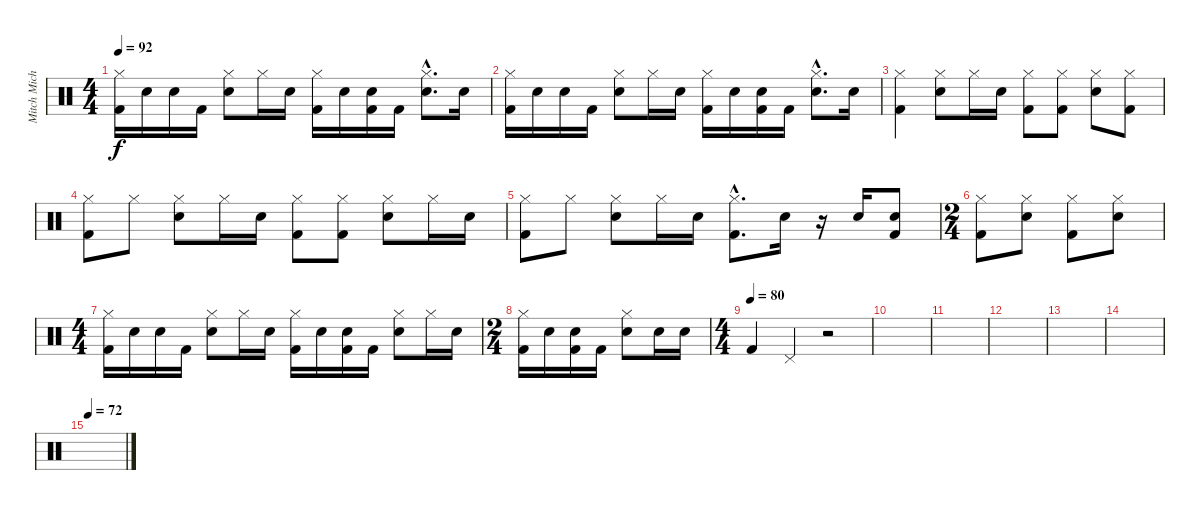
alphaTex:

\track ("Mitch Michell" "Mitch Mich") {instrument percussion}
\staff {score}
\articulation defaults
\ts (4 4)
\tempo 92
\clef neutral
\ks c
("Hi-Hat (closed)" "Kick (hit) 2").16{dy f} "Snare (hit) 2".16 "Snare (hit) 2".16 "Kick (hit) 2".16 ("Hi-Hat (closed)" "Snare (hit) 2").8 "Hi-Hat (closed)".16 "Snare (hit) 2".16 ("Hi-Hat (closed)" "Kick (hit) 2").16 "Snare (hit) 2".16 ("Snare (hit) 2" "Kick (hit) 2").16 "Kick (hit) 2".16 ("Hi-Hat (closed)"{hac} "Snare (hit) 2"{hac}).8{d} "Snare (hit) 2".16 |
("Hi-Hat (closed)" "Kick (hit) 2").16 "Snare (hit) 2".16 "Snare (hit) 2".16 "Kick (hit) 2".16 ("Hi-Hat (closed)" "Snare (hit) 2").8 "Hi-Hat (closed)".16 "Snare (hit) 2".16 ("Hi-Hat (closed)" "Kick (hit) 2").16 "Snare (hit) 2".16 ("Snare (hit) 2" "Kick (hit) 2").16 "Kick (hit) 2".16 ("Hi-Hat (closed)"{hac} "Snare (hit) 2"{hac}).8{d} "Snare (hit) 2".16 |
("Hi-Hat (closed)" "Kick (hit) 2").4 ("Hi-Hat (closed)" "Snare (hit) 2").8 "Hi-Hat (closed)".16 "Snare (hit) 2".16 ("Hi-Hat (closed)" "Kick (hit) 2").8 ("Hi-Hat (closed)" "Kick (hit) 2").8 ("Hi-Hat (closed)" "Snare (hit) 2").8 ("Hi-Hat (closed)" "Kick (hit) 2").8 |
("Hi-Hat (closed)" "Kick (hit) 2").8 "Hi-Hat (closed)".8 ("Hi-Hat (closed)" "Snare (hit) 2").8 "Hi-Hat (closed)".16 "Snare (hit) 2".16 ("Hi-Hat (closed)" "Kick (hit) 2").8 ("Hi-Hat (closed)" "Kick (hit) 2").8 ("Hi-Hat (closed)" "Snare (hit) 2").8 "Hi-Hat (closed)".16 "Snare (hit) 2".16 |
("Hi-Hat (closed)" "Kick (hit) 2").8 "Hi-Hat (closed)".8 ("Hi-Hat (closed)" "Snare (hit) 2").8 "Hi-Hat (closed)".16 "Snare (hit) 2".16 ("Hi-Hat (closed)"{hac} "Kick (hit) 2"{hac}).8{d} "Snare (hit) 2".16 r.16 "Snare (hit) 2".16 ("Snare (hit) 2" "Kick (hit) 2").8 |
\ts (2 4)
("Hi-Hat (closed)" "Kick (hit) 2").8 ("Hi-Hat (closed)" "Snare (hit) 2").8 ("Hi-Hat (closed)" "Kick (hit) 2").8 ("Hi-Hat (closed)" "Snare (hit) 2").8 |
\ts (4 4)
("Hi-Hat (closed)" "Kick (hit) 2").16 "Snare (hit) 2".16 "Snare (hit) 2".16 "Kick (hit) 2".16 ("Hi-Hat (closed)" "Snare (hit) 2").8 "Hi-Hat (closed)".16 "Snare (hit) 2".16 ("Hi-Hat (closed)" "Kick (hit) 2").16 "Snare (hit) 2".16 ("Snare (hit) 2" "Kick (hit) 2").16 "Kick (hit) 2".16 ("Hi-Hat (closed)" "Snare (hit) 2").8 "Hi-Hat (closed)".16 "Snare (hit) 2".16 |
\ts (2 4)
("Hi-Hat (closed)" "Kick (hit) 2").16 "Snare (hit) 2".16 ("Snare (hit) 2" "Kick (hit) 2").16 "Kick (hit) 2".16 ("Hi-Hat (closed)" "Snare (hit) 2").8 "Snare (hit) 2".16 "Snare (hit) 2".16 |
\ts (4 4)
\tempo (80)
"Kick (hit) 2".4 "Pedal Hi-Hat (hit)".4 r.2 |
|
|
|
|
|
\tempo 72
